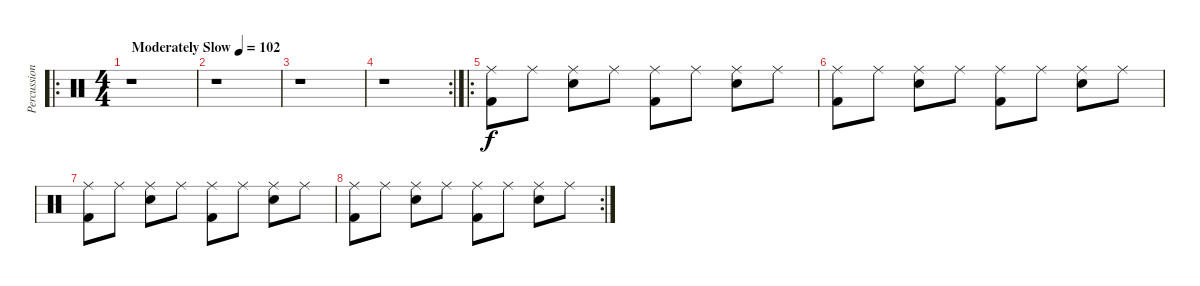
\track ("Percussion" "Percussion") {instrument percussion}
\staff {score}
\articulation defaults
\ro
\ts (4 4)
\tempo (102 "Moderately Slow")
\clef neutral
\ks c
r.1{dy f} |
r.1 |
r.1 |
\rc 2
r.1 |
\ro
("Ride (middle)" "Kick (hit) 2").8 "Ride (middle)".8 ("Ride (middle)" "Snare (hit) 2").8 "Ride (middle)".8 ("Ride (middle)" "Kick (hit) 2").8 "Ride (middle)".8 ("Ride (middle)" "Snare (hit) 2").8 "Ride (middle)".8 |
("Ride (middle)" "Kick (hit) 2").8 "Ride (middle)".8 ("Ride (middle)" "Snare (hit) 2").8 "Ride (middle)".8 ("Ride (middle)" "Kick (hit) 2").8 "Ride (middle)".8 ("Ride (middle)" "Snare (hit) 2").8 "Ride (middle)".8 |
("Ride (middle)" "Kick (hit) 2").8 "Ride (middle)".8 ("Ride (middle)" "Snare (hit) 2").8 "Ride (middle)".8 ("Ride (middle)" "Kick (hit) 2").8 "Ride (middle)".8 ("Ride (middle)" "Snare (hit) 2").8 "Ride (middle)".8 |
\rc 2
("Ride (middle)" "Kick (hit) 2").8 "Ride (middle)".8 ("Ride (middle)" "Snare (hit) 2").8 "Ride (middle)".8 ("Ride (middle)" "Kick (hit) 2").8 "Ride (middle)".8 ("Ride (middle)" "Snare (hit) 2").8 "Ride (middle)".8
